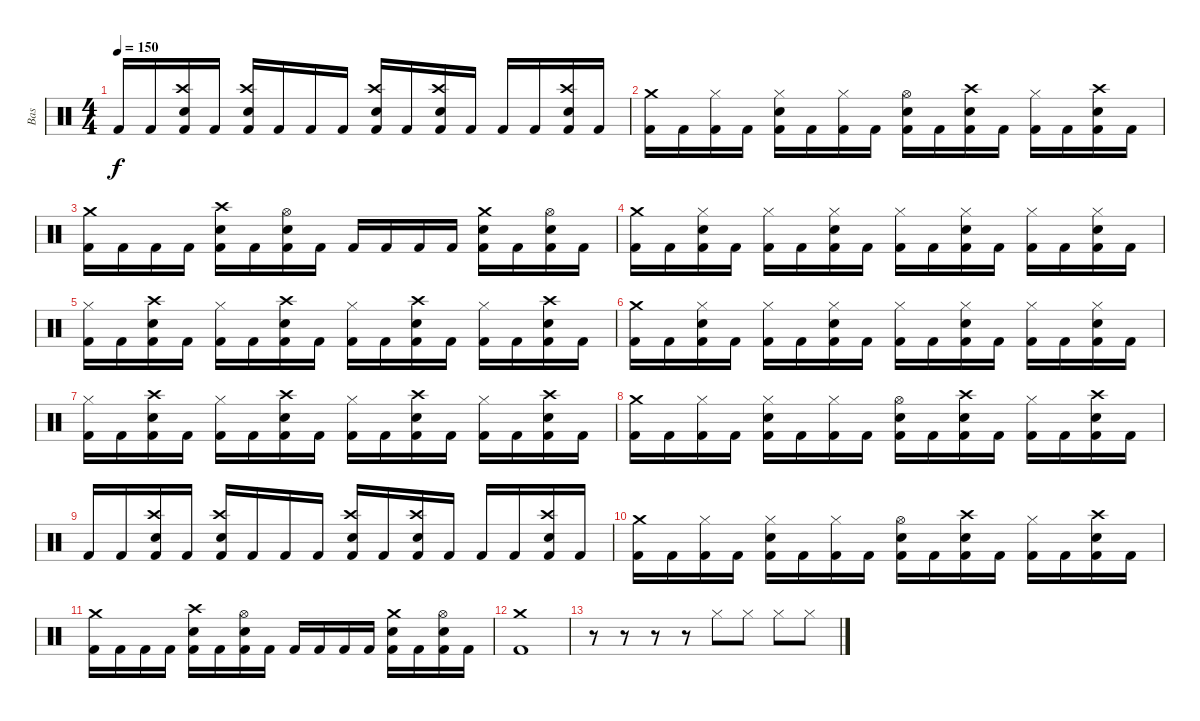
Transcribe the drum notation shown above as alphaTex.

\track ("Bas" "Bas") {instrument percussion}
\staff {score}
\articulation defaults
\ts (4 4)
\tempo 150
\clef neutral
\ks c "Kick (hit) 2".16{dy f} "Kick (hit) 2".16
("Crash high (hit)" "Snare (hit) 2" "Kick (hit) 2").16 "Kick (hit) 2".16 ("Crash high (hit)" "Snare (hit) 2" "Kick (hit) 2").16 "Kick (hit) 2".16 "Kick (hit) 2".16 "Kick (hit) 2".16 ("Crash high (hit)" "Snare (hit) 2" "Kick (hit) 2").16 "Kick (hit) 2".16 ("Crash high (hit)" "Snare (hit) 2" "Kick (hit) 2").16 "Kick (hit) 2".16 "Kick (hit) 2".16 "Kick (hit) 2".16 ("Crash high (hit)" "Snare (hit) 2" "Kick (hit) 2").16 "Kick (hit) 2".16 |
("Crash medium (hit)" "Kick (hit) 2").16 "Kick (hit) 2".16 ("Hi-Hat (closed)" "Kick (hit) 2").16 "Kick (hit) 2".16 ("Hi-Hat (closed)" "Snare (hit) 2" "Kick (hit) 2").16 "Kick (hit) 2".16 ("Hi-Hat (closed)" "Kick (hit) 2").16 "Kick (hit) 2".16 ("Hi-Hat (open)" "Snare (hit) 2" "Kick (hit) 2").16 "Kick (hit) 2".16 ("Crash high (hit)" "Snare (hit) 2" "Kick (hit) 2").16 "Kick (hit) 2".16 ("Hi-Hat (closed)" "Kick (hit) 2").16 "Kick (hit) 2".16 ("Crash high (hit)" "Snare (hit) 2" "Kick (hit) 2").16 "Kick (hit) 2".16 |
("Crash medium (hit)" "Kick (hit) 2").16 "Kick (hit) 2".16 "Kick (hit) 2".16 "Kick (hit) 2".16 ("Crash high (hit)" "Snare (hit) 2" "Kick (hit) 2").16 "Kick (hit) 2".16 ("Hi-Hat (open)" "Snare (hit) 2" "Kick (hit) 2").16 "Kick (hit) 2".16 "Kick (hit) 2".16 "Kick (hit) 2".16 "Kick (hit) 2".16 "Kick (hit) 2".16 ("Crash medium (hit)" "Snare (hit) 2" "Kick (hit) 2").16 "Kick (hit) 2".16 ("Hi-Hat (open)" "Snare (hit) 2" "Kick (hit) 2").16 "Kick (hit) 2".16 |
("Crash medium (hit)" "Kick (hit) 2").16 "Kick (hit) 2".16 ("Hi-Hat (closed)" "Snare (hit) 2" "Kick (hit) 2").16 "Kick (hit) 2".16 ("Hi-Hat (closed)" "Kick (hit) 2").16 "Kick (hit) 2".16 ("Hi-Hat (closed)" "Snare (hit) 2" "Kick (hit) 2").16 "Kick (hit) 2".16 ("Hi-Hat (closed)" "Kick (hit) 2").16 "Kick (hit) 2".16 ("Hi-Hat (closed)" "Snare (hit) 2" "Kick (hit) 2").16 "Kick (hit) 2".16 ("Hi-Hat (closed)" "Kick (hit) 2").16 "Kick (hit) 2".16 ("Hi-Hat (closed)" "Snare (hit) 2" "Kick (hit) 2").16 "Kick (hit) 2".16 |
("Hi-Hat (closed)" "Kick (hit) 2").16 "Kick (hit) 2".16 ("Crash high (hit)" "Snare (hit) 2" "Kick (hit) 2").16 "Kick (hit) 2".16 ("Hi-Hat (closed)" "Kick (hit) 2").16 "Kick (hit) 2".16 ("Crash high (hit)" "Snare (hit) 2" "Kick (hit) 2").16 "Kick (hit) 2".16 ("Hi-Hat (closed)" "Kick (hit) 2").16 "Kick (hit) 2".16 ("Crash high (hit)" "Snare (hit) 2" "Kick (hit) 2").16 "Kick (hit) 2".16 ("Hi-Hat (closed)" "Kick (hit) 2").16 "Kick (hit) 2".16 ("Crash high (hit)" "Snare (hit) 2" "Kick (hit) 2").16 "Kick (hit) 2".16 |
("Crash medium (hit)" "Kick (hit) 2").16 "Kick (hit) 2".16 ("Hi-Hat (closed)" "Snare (hit) 2" "Kick (hit) 2").16 "Kick (hit) 2".16 ("Hi-Hat (closed)" "Kick (hit) 2").16 "Kick (hit) 2".16 ("Hi-Hat (closed)" "Snare (hit) 2" "Kick (hit) 2").16 "Kick (hit) 2".16 ("Hi-Hat (closed)" "Kick (hit) 2").16 "Kick (hit) 2".16 ("Hi-Hat (closed)" "Snare (hit) 2" "Kick (hit) 2").16 "Kick (hit) 2".16 ("Hi-Hat (closed)" "Kick (hit) 2").16 "Kick (hit) 2".16 ("Hi-Hat (closed)" "Snare (hit) 2" "Kick (hit) 2").16 "Kick (hit) 2".16 |
("Hi-Hat (closed)" "Kick (hit) 2").16 "Kick (hit) 2".16 ("Crash high (hit)" "Snare (hit) 2" "Kick (hit) 2").16 "Kick (hit) 2".16 ("Hi-Hat (closed)" "Kick (hit) 2").16 "Kick (hit) 2".16 ("Crash high (hit)" "Snare (hit) 2" "Kick (hit) 2").16 "Kick (hit) 2".16 ("Hi-Hat (closed)" "Kick (hit) 2").16 "Kick (hit) 2".16 ("Crash high (hit)" "Snare (hit) 2" "Kick (hit) 2").16 "Kick (hit) 2".16 ("Hi-Hat (closed)" "Kick (hit) 2").16 "Kick (hit) 2".16 ("Crash high (hit)" "Snare (hit) 2" "Kick (hit) 2").16 "Kick (hit) 2".16 |
("Crash medium (hit)" "Kick (hit) 2").16 "Kick (hit) 2".16 ("Hi-Hat (closed)" "Kick (hit) 2").16 "Kick (hit) 2".16 ("Hi-Hat (closed)" "Snare (hit) 2" "Kick (hit) 2").16 "Kick (hit) 2".16 ("Hi-Hat (closed)" "Kick (hit) 2").16 "Kick (hit) 2".16 ("Hi-Hat (open)" "Snare (hit) 2" "Kick (hit) 2").16 "Kick (hit) 2".16 ("Crash high (hit)" "Snare (hit) 2" "Kick (hit) 2").16 "Kick (hit) 2".16 ("Hi-Hat (closed)" "Kick (hit) 2").16 "Kick (hit) 2".16 ("Crash high (hit)" "Snare (hit) 2" "Kick (hit) 2").16 "Kick (hit) 2".16 |
"Kick (hit) 2".16 "Kick (hit) 2".16 ("Crash high (hit)" "Snare (hit) 2" "Kick (hit) 2").16 "Kick (hit) 2".16 ("Crash high (hit)" "Snare (hit) 2" "Kick (hit) 2").16 "Kick (hit) 2".16 "Kick (hit) 2".16 "Kick (hit) 2".16 ("Crash high (hit)" "Snare (hit) 2" "Kick (hit) 2").16 "Kick (hit) 2".16 ("Crash high (hit)" "Snare (hit) 2" "Kick (hit) 2").16 "Kick (hit) 2".16 "Kick (hit) 2".16 "Kick (hit) 2".16 ("Crash high (hit)" "Snare (hit) 2" "Kick (hit) 2").16 "Kick (hit) 2".16 |
("Crash medium (hit)" "Kick (hit) 2").16 "Kick (hit) 2".16 ("Hi-Hat (closed)" "Kick (hit) 2").16 "Kick (hit) 2".16 ("Hi-Hat (closed)" "Snare (hit) 2" "Kick (hit) 2").16 "Kick (hit) 2".16 ("Hi-Hat (closed)" "Kick (hit) 2").16 "Kick (hit) 2".16 ("Hi-Hat (open)" "Snare (hit) 2" "Kick (hit) 2").16 "Kick (hit) 2".16 ("Crash high (hit)" "Snare (hit) 2" "Kick (hit) 2").16 "Kick (hit) 2".16 ("Hi-Hat (closed)" "Kick (hit) 2").16 "Kick (hit) 2".16 ("Crash high (hit)" "Snare (hit) 2" "Kick (hit) 2").16 "Kick (hit) 2".16 |
("Crash medium (hit)" "Kick (hit) 2").16 "Kick (hit) 2".16 "Kick (hit) 2".16 "Kick (hit) 2".16 ("Crash high (hit)" "Snare (hit) 2" "Kick (hit) 2").16 "Kick (hit) 2".16 ("Hi-Hat (open)" "Snare (hit) 2" "Kick (hit) 2").16 "Kick (hit) 2".16 "Kick (hit) 2".16 "Kick (hit) 2".16 "Kick (hit) 2".16 "Kick (hit) 2".16 ("Crash medium (hit)" "Snare (hit) 2" "Kick (hit) 2").16 "Kick (hit) 2".16 ("Hi-Hat (open)" "Snare (hit) 2" "Kick (hit) 2").16 "Kick (hit) 2".16 |
("Crash medium (hit)" "Kick (hit) 2").1 |
r.8 r.8 r.8 r.8 "Hi-Hat (closed)".8 "Hi-Hat (closed)".8 "Hi-Hat (closed)".8 "Hi-Hat (closed)".8
